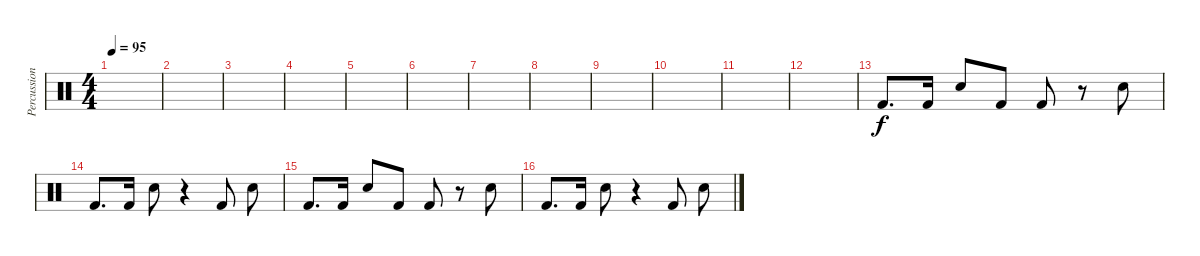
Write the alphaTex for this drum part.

\track ("Percussion" "Percussion") {instrument percussion}
\staff {score}
\articulation defaults
\ts (4 4)
\tempo 95
\clef neutral
\ks c
|
|
|
|
|
|
|
|
|
|
|
|
"Kick (hit) 2".8{d} "Kick (hit) 2".16 "Snare (hit) 2".8 "Kick (hit) 2".8 "Kick (hit) 2".8 r.8 "Snare (hit) 2".8 |
"Kick (hit) 2".8{d} "Kick (hit) 2".16 "Snare (hit) 2".8 r.4 "Kick (hit) 2".8 "Snare (hit) 2".8 |
"Kick (hit) 2".8{d} "Kick (hit) 2".16 "Snare (hit) 2".8 "Kick (hit) 2".8 "Kick (hit) 2".8 r.8 "Snare (hit) 2".8 |
"Kick (hit) 2".8{d} "Kick (hit) 2".16 "Snare (hit) 2".8 r.4 "Kick (hit) 2".8 "Snare (hit) 2".8
